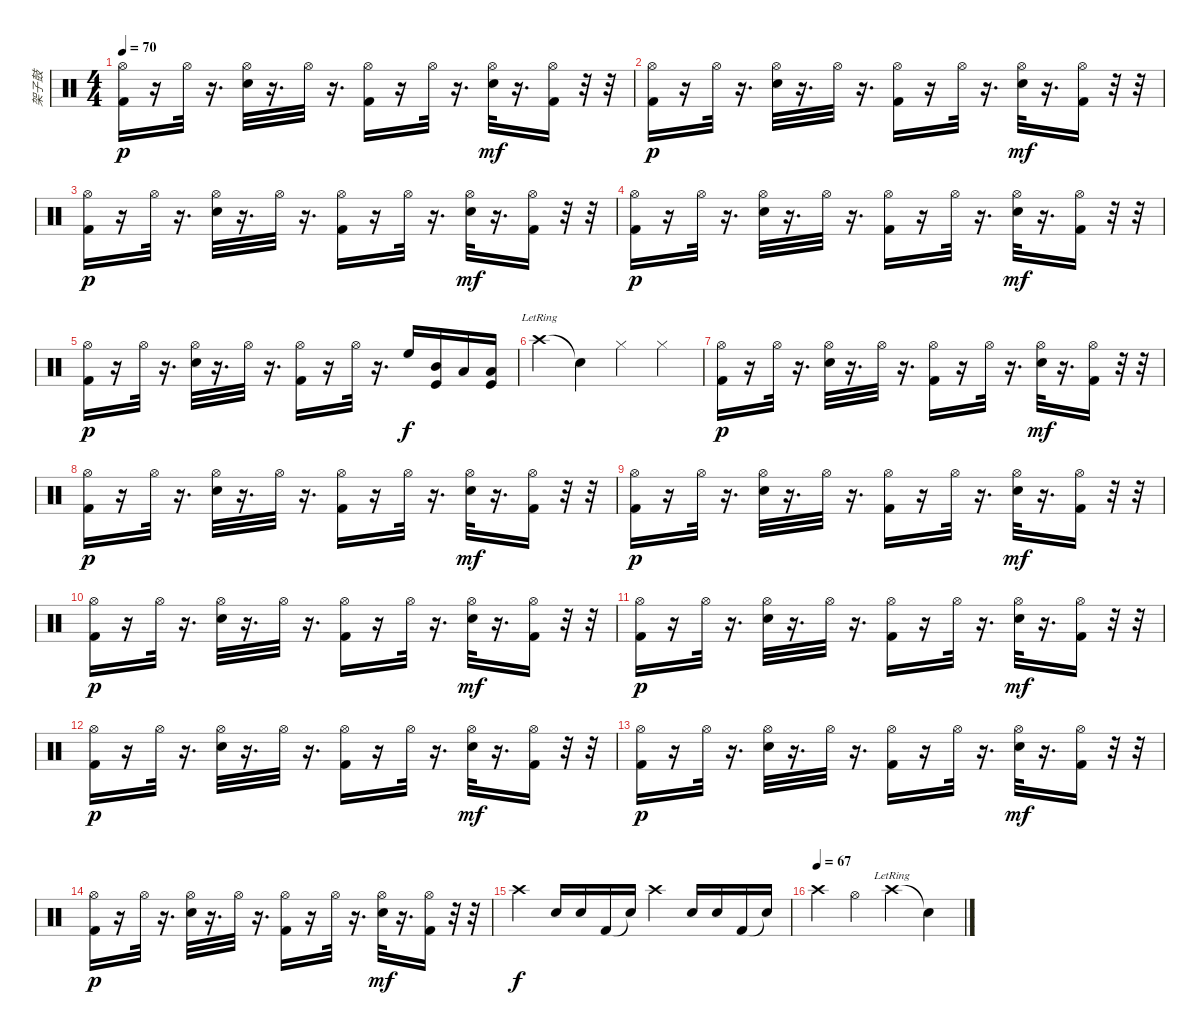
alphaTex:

\track ("架子鼓" "架子鼓") {instrument percussion}
\staff {score}
\articulation defaults
\ts (4 4)
\tempo 70
\clef neutral
\ks c
("Hi-Hat (open)" "Kick (hit) 2").16{dy p} r.16 "Hi-Hat (open)".32 r.16{d} ("Hi-Hat (open)" "Snare (hit) 2").32 r.16{d} "Hi-Hat (open)".32 r.16{d} ("Hi-Hat (open)" "Kick (hit) 2").16 r.16 "Hi-Hat (open)".32 r.16{d} ("Hi-Hat (open)" "Snare (hit) 2").32{dy mf} r.16{d} ("Hi-Hat (open)" "Kick (hit) 2").16 r.32 r.32 |
("Hi-Hat (open)" "Kick (hit) 2").16{dy p} r.16 "Hi-Hat (open)".32 r.16{d} ("Hi-Hat (open)" "Snare (hit) 2").32 r.16{d} "Hi-Hat (open)".32 r.16{d} ("Hi-Hat (open)" "Kick (hit) 2").16 r.16 "Hi-Hat (open)".32 r.16{d} ("Hi-Hat (open)" "Snare (hit) 2").32{dy mf} r.16{d} ("Hi-Hat (open)" "Kick (hit) 2").16 r.32 r.32 |
("Hi-Hat (open)" "Kick (hit) 2").16{dy p} r.16 "Hi-Hat (open)".32 r.16{d} ("Hi-Hat (open)" "Snare (hit) 2").32 r.16{d} "Hi-Hat (open)".32 r.16{d} ("Hi-Hat (open)" "Kick (hit) 2").16 r.16 "Hi-Hat (open)".32 r.16{d} ("Hi-Hat (open)" "Snare (hit) 2").32{dy mf} r.16{d} ("Hi-Hat (open)" "Kick (hit) 2").16 r.32 r.32 |
("Hi-Hat (open)" "Kick (hit) 2").16{dy p} r.16 "Hi-Hat (open)".32 r.16{d} ("Hi-Hat (open)" "Snare (hit) 2").32 r.16{d} "Hi-Hat (open)".32 r.16{d} ("Hi-Hat (open)" "Kick (hit) 2").16 r.16 "Hi-Hat (open)".32 r.16{d} ("Hi-Hat (open)" "Snare (hit) 2").32{dy mf} r.16{d} ("Hi-Hat (open)" "Kick (hit) 2").16 r.32 r.32 |
("Hi-Hat (open)" "Kick (hit) 2").16{dy p} r.16 "Hi-Hat (open)".32 r.16{d} ("Hi-Hat (open)" "Snare (hit) 2").32 r.16{d} "Hi-Hat (open)".32 r.16{d} ("Hi-Hat (open)" "Kick (hit) 2").16 r.16 "Hi-Hat (open)".32 r.16{d} "High Floor Tom (hit)".16{dy f} ("Mid Tom (hit)" "Kick (hit)").16 "Low Tom (hit)".16 ("Low Floor Tom (hit)" "Kick (hit)").16 |
"Crash high (hit)"{lr}.4 "Snare (hit)"{t}.4 "Hi-Hat (closed)".4 "Hi-Hat (closed)".4 |
("Hi-Hat (open)" "Kick (hit) 2").16{dy p} r.16 "Hi-Hat (open)".32 r.16{d} ("Hi-Hat (open)" "Snare (hit) 2").32 r.16{d} "Hi-Hat (open)".32 r.16{d} ("Hi-Hat (open)" "Kick (hit) 2").16 r.16 "Hi-Hat (open)".32 r.16{d} ("Hi-Hat (open)" "Snare (hit) 2").32{dy mf} r.16{d} ("Hi-Hat (open)" "Kick (hit) 2").16 r.32 r.32 |
("Hi-Hat (open)" "Kick (hit) 2").16{dy p} r.16 "Hi-Hat (open)".32 r.16{d} ("Hi-Hat (open)" "Snare (hit) 2").32 r.16{d} "Hi-Hat (open)".32 r.16{d} ("Hi-Hat (open)" "Kick (hit) 2").16 r.16 "Hi-Hat (open)".32 r.16{d} ("Hi-Hat (open)" "Snare (hit) 2").32{dy mf} r.16{d} ("Hi-Hat (open)" "Kick (hit) 2").16 r.32 r.32 |
("Hi-Hat (open)" "Kick (hit) 2").16{dy p} r.16 "Hi-Hat (open)".32 r.16{d} ("Hi-Hat (open)" "Snare (hit) 2").32 r.16{d} "Hi-Hat (open)".32 r.16{d} ("Hi-Hat (open)" "Kick (hit) 2").16 r.16 "Hi-Hat (open)".32 r.16{d} ("Hi-Hat (open)" "Snare (hit) 2").32{dy mf} r.16{d} ("Hi-Hat (open)" "Kick (hit) 2").16 r.32 r.32 |
("Hi-Hat (open)" "Kick (hit) 2").16{dy p} r.16 "Hi-Hat (open)".32 r.16{d} ("Hi-Hat (open)" "Snare (hit) 2").32 r.16{d} "Hi-Hat (open)".32 r.16{d} ("Hi-Hat (open)" "Kick (hit) 2").16 r.16 "Hi-Hat (open)".32 r.16{d} ("Hi-Hat (open)" "Snare (hit) 2").32{dy mf} r.16{d} ("Hi-Hat (open)" "Kick (hit) 2").16 r.32 r.32 |
("Hi-Hat (open)" "Kick (hit) 2").16{dy p} r.16 "Hi-Hat (open)".32 r.16{d} ("Hi-Hat (open)" "Snare (hit) 2").32 r.16{d} "Hi-Hat (open)".32 r.16{d} ("Hi-Hat (open)" "Kick (hit) 2").16 r.16 "Hi-Hat (open)".32 r.16{d} ("Hi-Hat (open)" "Snare (hit) 2").32{dy mf} r.16{d} ("Hi-Hat (open)" "Kick (hit) 2").16 r.32 r.32 |
("Hi-Hat (open)" "Kick (hit) 2").16{dy p} r.16 "Hi-Hat (open)".32 r.16{d} ("Hi-Hat (open)" "Snare (hit) 2").32 r.16{d} "Hi-Hat (open)".32 r.16{d} ("Hi-Hat (open)" "Kick (hit) 2").16 r.16 "Hi-Hat (open)".32 r.16{d} ("Hi-Hat (open)" "Snare (hit) 2").32{dy mf} r.16{d} ("Hi-Hat (open)" "Kick (hit) 2").16 r.32 r.32 |
("Hi-Hat (open)" "Kick (hit) 2").16{dy p} r.16 "Hi-Hat (open)".32 r.16{d} ("Hi-Hat (open)" "Snare (hit) 2").32 r.16{d} "Hi-Hat (open)".32 r.16{d} ("Hi-Hat (open)" "Kick (hit) 2").16 r.16 "Hi-Hat (open)".32 r.16{d} ("Hi-Hat (open)" "Snare (hit) 2").32{dy mf} r.16{d} ("Hi-Hat (open)" "Kick (hit) 2").16 r.32 r.32 |
("Hi-Hat (open)" "Kick (hit) 2").16{dy p} r.16 "Hi-Hat (open)".32 r.16{d} ("Hi-Hat (open)" "Snare (hit) 2").32 r.16{d} "Hi-Hat (open)".32 r.16{d} ("Hi-Hat (open)" "Kick (hit) 2").16 r.16 "Hi-Hat (open)".32 r.16{d} ("Hi-Hat (open)" "Snare (hit) 2").32{dy mf} r.16{d} ("Hi-Hat (open)" "Kick (hit) 2").16 r.32 r.32 |
"Crash high (hit)".4{dy f} "Snare (hit) 2".16 "Snare (hit) 2".16 "Kick (hit) 2".16 "Snare (hit)"{t}.16 "Crash high (hit)".4 "Snare (hit) 2".16 "Snare (hit) 2".16 "Kick (hit) 2".16 "Snare (hit)"{t}.16 |
\tempo (67)
"Crash high (hit)".4 "Hi-Hat (open)".4 "Crash high (hit)"{lr}.4 "Snare (hit)"{t}.4
